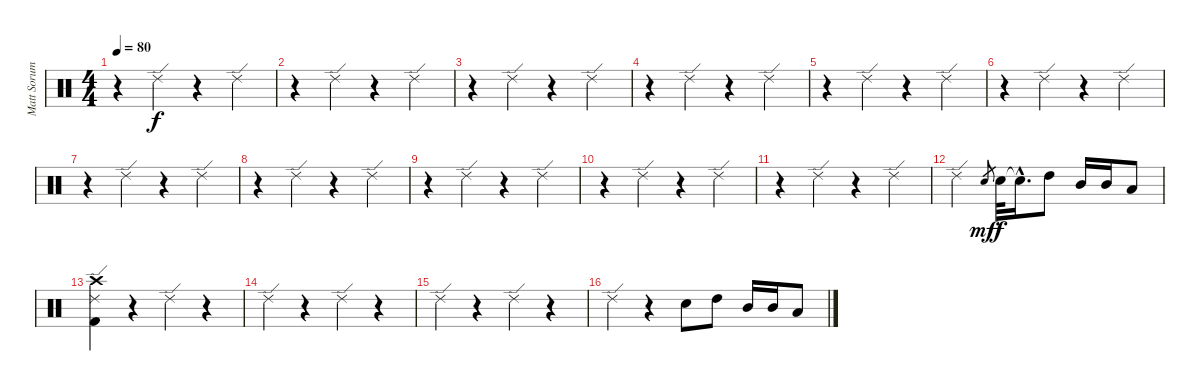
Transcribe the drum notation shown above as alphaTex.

\track ("Matt Sorum" "Matt Sorum") {instrument percussion}
\staff {score}
\articulation defaults
\ts (4 4)
\tempo 80
\clef neutral
\ks c
r.4{dy f} "Ride (edge) 2".4 r.4 "Ride (edge) 2".4 |
r.4 "Ride (edge) 2".4 r.4 "Ride (edge) 2".4 |
r.4 "Ride (edge) 2".4 r.4 "Ride (edge) 2".4 |
r.4 "Ride (edge) 2".4 r.4 "Ride (edge) 2".4 |
r.4 "Ride (edge) 2".4 r.4 "Ride (edge) 2".4 |
r.4 "Ride (edge) 2".4 r.4 "Ride (edge) 2".4 |
r.4 "Ride (edge) 2".4 r.4 "Ride (edge) 2".4 |
r.4 "Ride (edge) 2".4 r.4 "Ride (edge) 2".4 |
r.4 "Ride (edge) 2".4 r.4 "Ride (edge) 2".4 |
r.4 "Ride (edge) 2".4 r.4 "Ride (edge) 2".4 |
r.4 "Ride (edge) 2".4 r.4 "Ride (edge) 2".4 |
"Ride (edge) 2".2 "Electric Snare (hit)".8{gr dy mf} "Electric Snare (hit)".32{dy f} "Snare (hit)"{hac t}.16{d} "High Tom (hit)".8 "Mid Tom (hit)".16 "Mid Tom (hit)".16 "Low Tom (hit)".8 |
("Ride (edge) 2" "Kick (hit) 2" "Crash high (hit)").4 r.4 "Ride (edge) 2".4 r.4 |
"Ride (edge) 2".4 r.4 "Ride (edge) 2".4 r.4 |
"Ride (edge) 2".4 r.4 "Ride (edge) 2".4 r.4 |
"Ride (edge) 2".4 r.4 "Electric Snare (hit)".8 "High Tom (hit)".8 "Mid Tom (hit)".16 "Mid Tom (hit)".16 "Low Tom (hit)".8
